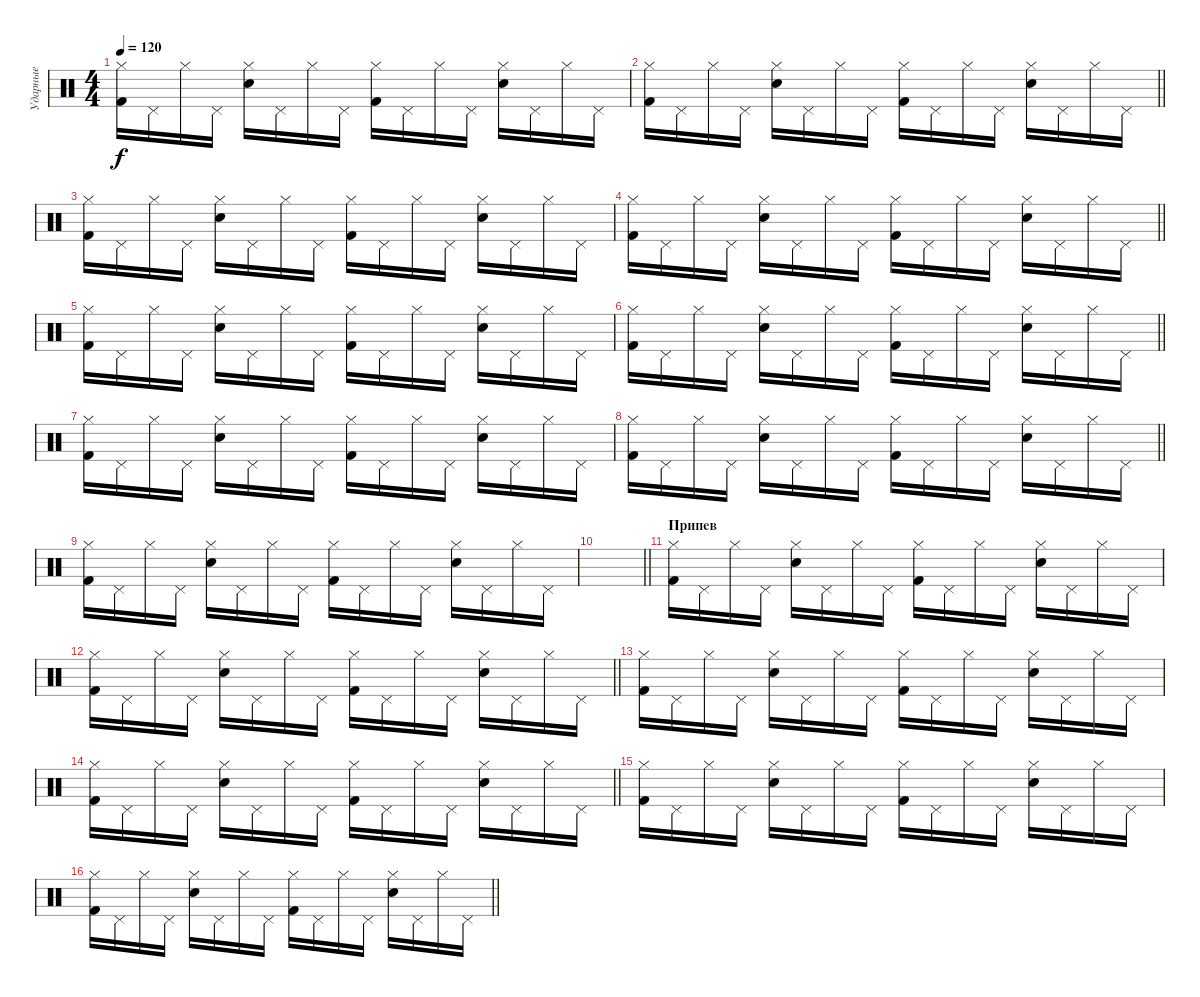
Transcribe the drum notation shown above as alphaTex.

\track ("Ударные" "Ударные") {instrument percussion}
\staff {score}
\articulation defaults
\ts (4 4)
\tempo 120
\clef neutral
\ks c
("Hi-Hat (closed)" "Kick (hit) 2").16{dy f} "Pedal Hi-Hat (hit)".16 "Hi-Hat (closed)".16 "Pedal Hi-Hat (hit)".16 ("Hi-Hat (closed)" "Snare (hit) 2").16 "Pedal Hi-Hat (hit)".16 "Hi-Hat (closed)".16 "Pedal Hi-Hat (hit)".16 ("Hi-Hat (closed)" "Kick (hit) 2").16 "Pedal Hi-Hat (hit)".16 "Hi-Hat (closed)".16 "Pedal Hi-Hat (hit)".16 ("Hi-Hat (closed)" "Snare (hit) 2").16 "Pedal Hi-Hat (hit)".16 "Hi-Hat (closed)".16 "Pedal Hi-Hat (hit)".16 |
\barLineRight lightlight
("Hi-Hat (closed)" "Kick (hit) 2").16 "Pedal Hi-Hat (hit)".16 "Hi-Hat (closed)".16 "Pedal Hi-Hat (hit)".16 ("Hi-Hat (closed)" "Snare (hit) 2").16 "Pedal Hi-Hat (hit)".16 "Hi-Hat (closed)".16 "Pedal Hi-Hat (hit)".16 ("Hi-Hat (closed)" "Kick (hit) 2").16 "Pedal Hi-Hat (hit)".16 "Hi-Hat (closed)".16 "Pedal Hi-Hat (hit)".16 ("Hi-Hat (closed)" "Snare (hit) 2").16 "Pedal Hi-Hat (hit)".16 "Hi-Hat (closed)".16 "Pedal Hi-Hat (hit)".16 |
("Hi-Hat (closed)" "Kick (hit) 2").16 "Pedal Hi-Hat (hit)".16 "Hi-Hat (closed)".16 "Pedal Hi-Hat (hit)".16 ("Hi-Hat (closed)" "Snare (hit) 2").16 "Pedal Hi-Hat (hit)".16 "Hi-Hat (closed)".16 "Pedal Hi-Hat (hit)".16 ("Hi-Hat (closed)" "Kick (hit) 2").16 "Pedal Hi-Hat (hit)".16 "Hi-Hat (closed)".16 "Pedal Hi-Hat (hit)".16 ("Hi-Hat (closed)" "Snare (hit) 2").16 "Pedal Hi-Hat (hit)".16 "Hi-Hat (closed)".16 "Pedal Hi-Hat (hit)".16 |
\barLineRight lightlight
("Hi-Hat (closed)" "Kick (hit) 2").16 "Pedal Hi-Hat (hit)".16 "Hi-Hat (closed)".16 "Pedal Hi-Hat (hit)".16 ("Hi-Hat (closed)" "Snare (hit) 2").16 "Pedal Hi-Hat (hit)".16 "Hi-Hat (closed)".16 "Pedal Hi-Hat (hit)".16 ("Hi-Hat (closed)" "Kick (hit) 2").16 "Pedal Hi-Hat (hit)".16 "Hi-Hat (closed)".16 "Pedal Hi-Hat (hit)".16 ("Hi-Hat (closed)" "Snare (hit) 2").16 "Pedal Hi-Hat (hit)".16 "Hi-Hat (closed)".16 "Pedal Hi-Hat (hit)".16 |
("Hi-Hat (closed)" "Kick (hit) 2").16 "Pedal Hi-Hat (hit)".16 "Hi-Hat (closed)".16 "Pedal Hi-Hat (hit)".16 ("Hi-Hat (closed)" "Snare (hit) 2").16 "Pedal Hi-Hat (hit)".16 "Hi-Hat (closed)".16 "Pedal Hi-Hat (hit)".16 ("Hi-Hat (closed)" "Kick (hit) 2").16 "Pedal Hi-Hat (hit)".16 "Hi-Hat (closed)".16 "Pedal Hi-Hat (hit)".16 ("Hi-Hat (closed)" "Snare (hit) 2").16 "Pedal Hi-Hat (hit)".16 "Hi-Hat (closed)".16 "Pedal Hi-Hat (hit)".16 |
\barLineRight lightlight
("Hi-Hat (closed)" "Kick (hit) 2").16 "Pedal Hi-Hat (hit)".16 "Hi-Hat (closed)".16 "Pedal Hi-Hat (hit)".16 ("Hi-Hat (closed)" "Snare (hit) 2").16 "Pedal Hi-Hat (hit)".16 "Hi-Hat (closed)".16 "Pedal Hi-Hat (hit)".16 ("Hi-Hat (closed)" "Kick (hit) 2").16 "Pedal Hi-Hat (hit)".16 "Hi-Hat (closed)".16 "Pedal Hi-Hat (hit)".16 ("Hi-Hat (closed)" "Snare (hit) 2").16 "Pedal Hi-Hat (hit)".16 "Hi-Hat (closed)".16 "Pedal Hi-Hat (hit)".16 |
("Hi-Hat (closed)" "Kick (hit) 2").16 "Pedal Hi-Hat (hit)".16 "Hi-Hat (closed)".16 "Pedal Hi-Hat (hit)".16 ("Hi-Hat (closed)" "Snare (hit) 2").16 "Pedal Hi-Hat (hit)".16 "Hi-Hat (closed)".16 "Pedal Hi-Hat (hit)".16 ("Hi-Hat (closed)" "Kick (hit) 2").16 "Pedal Hi-Hat (hit)".16 "Hi-Hat (closed)".16 "Pedal Hi-Hat (hit)".16 ("Hi-Hat (closed)" "Snare (hit) 2").16 "Pedal Hi-Hat (hit)".16 "Hi-Hat (closed)".16 "Pedal Hi-Hat (hit)".16 |
\barLineRight lightlight
("Hi-Hat (closed)" "Kick (hit) 2").16 "Pedal Hi-Hat (hit)".16 "Hi-Hat (closed)".16 "Pedal Hi-Hat (hit)".16 ("Hi-Hat (closed)" "Snare (hit) 2").16 "Pedal Hi-Hat (hit)".16 "Hi-Hat (closed)".16 "Pedal Hi-Hat (hit)".16 ("Hi-Hat (closed)" "Kick (hit) 2").16 "Pedal Hi-Hat (hit)".16 "Hi-Hat (closed)".16 "Pedal Hi-Hat (hit)".16 ("Hi-Hat (closed)" "Snare (hit) 2").16 "Pedal Hi-Hat (hit)".16 "Hi-Hat (closed)".16 "Pedal Hi-Hat (hit)".16 |
("Hi-Hat (closed)" "Kick (hit) 2").16 "Pedal Hi-Hat (hit)".16 "Hi-Hat (closed)".16 "Pedal Hi-Hat (hit)".16 ("Hi-Hat (closed)" "Snare (hit) 2").16 "Pedal Hi-Hat (hit)".16 "Hi-Hat (closed)".16 "Pedal Hi-Hat (hit)".16 ("Hi-Hat (closed)" "Kick (hit) 2").16 "Pedal Hi-Hat (hit)".16 "Hi-Hat (closed)".16 "Pedal Hi-Hat (hit)".16 ("Hi-Hat (closed)" "Snare (hit) 2").16 "Pedal Hi-Hat (hit)".16 "Hi-Hat (closed)".16 "Pedal Hi-Hat (hit)".16 |
\barLineRight lightlight
|
\section ("" "Припев")
("Hi-Hat (closed)" "Kick (hit) 2").16 "Pedal Hi-Hat (hit)".16 "Hi-Hat (closed)".16 "Pedal Hi-Hat (hit)".16 ("Hi-Hat (closed)" "Snare (hit) 2").16 "Pedal Hi-Hat (hit)".16 "Hi-Hat (closed)".16 "Pedal Hi-Hat (hit)".16 ("Hi-Hat (closed)" "Kick (hit) 2").16 "Pedal Hi-Hat (hit)".16 "Hi-Hat (closed)".16 "Pedal Hi-Hat (hit)".16 ("Hi-Hat (closed)" "Snare (hit) 2").16 "Pedal Hi-Hat (hit)".16 "Hi-Hat (closed)".16 "Pedal Hi-Hat (hit)".16 |
\barLineRight lightlight
("Hi-Hat (closed)" "Kick (hit) 2").16 "Pedal Hi-Hat (hit)".16 "Hi-Hat (closed)".16 "Pedal Hi-Hat (hit)".16 ("Hi-Hat (closed)" "Snare (hit) 2").16 "Pedal Hi-Hat (hit)".16 "Hi-Hat (closed)".16 "Pedal Hi-Hat (hit)".16 ("Hi-Hat (closed)" "Kick (hit) 2").16 "Pedal Hi-Hat (hit)".16 "Hi-Hat (closed)".16 "Pedal Hi-Hat (hit)".16 ("Hi-Hat (closed)" "Snare (hit) 2").16 "Pedal Hi-Hat (hit)".16 "Hi-Hat (closed)".16 "Pedal Hi-Hat (hit)".16 |
("Hi-Hat (closed)" "Kick (hit) 2").16 "Pedal Hi-Hat (hit)".16 "Hi-Hat (closed)".16 "Pedal Hi-Hat (hit)".16 ("Hi-Hat (closed)" "Snare (hit) 2").16 "Pedal Hi-Hat (hit)".16 "Hi-Hat (closed)".16 "Pedal Hi-Hat (hit)".16 ("Hi-Hat (closed)" "Kick (hit) 2").16 "Pedal Hi-Hat (hit)".16 "Hi-Hat (closed)".16 "Pedal Hi-Hat (hit)".16 ("Hi-Hat (closed)" "Snare (hit) 2").16 "Pedal Hi-Hat (hit)".16 "Hi-Hat (closed)".16 "Pedal Hi-Hat (hit)".16 |
\barLineRight lightlight
("Hi-Hat (closed)" "Kick (hit) 2").16 "Pedal Hi-Hat (hit)".16 "Hi-Hat (closed)".16 "Pedal Hi-Hat (hit)".16 ("Hi-Hat (closed)" "Snare (hit) 2").16 "Pedal Hi-Hat (hit)".16 "Hi-Hat (closed)".16 "Pedal Hi-Hat (hit)".16 ("Hi-Hat (closed)" "Kick (hit) 2").16 "Pedal Hi-Hat (hit)".16 "Hi-Hat (closed)".16 "Pedal Hi-Hat (hit)".16 ("Hi-Hat (closed)" "Snare (hit) 2").16 "Pedal Hi-Hat (hit)".16 "Hi-Hat (closed)".16 "Pedal Hi-Hat (hit)".16 |
("Hi-Hat (closed)" "Kick (hit) 2").16 "Pedal Hi-Hat (hit)".16 "Hi-Hat (closed)".16 "Pedal Hi-Hat (hit)".16 ("Hi-Hat (closed)" "Snare (hit) 2").16 "Pedal Hi-Hat (hit)".16 "Hi-Hat (closed)".16 "Pedal Hi-Hat (hit)".16 ("Hi-Hat (closed)" "Kick (hit) 2").16 "Pedal Hi-Hat (hit)".16 "Hi-Hat (closed)".16 "Pedal Hi-Hat (hit)".16 ("Hi-Hat (closed)" "Snare (hit) 2").16 "Pedal Hi-Hat (hit)".16 "Hi-Hat (closed)".16 "Pedal Hi-Hat (hit)".16 |
\barLineRight lightlight
("Hi-Hat (closed)" "Kick (hit) 2").16 "Pedal Hi-Hat (hit)".16 "Hi-Hat (closed)".16 "Pedal Hi-Hat (hit)".16 ("Hi-Hat (closed)" "Snare (hit) 2").16 "Pedal Hi-Hat (hit)".16 "Hi-Hat (closed)".16 "Pedal Hi-Hat (hit)".16 ("Hi-Hat (closed)" "Kick (hit) 2").16 "Pedal Hi-Hat (hit)".16 "Hi-Hat (closed)".16 "Pedal Hi-Hat (hit)".16 ("Hi-Hat (closed)" "Snare (hit) 2").16 "Pedal Hi-Hat (hit)".16 "Hi-Hat (closed)".16 "Pedal Hi-Hat (hit)".16
